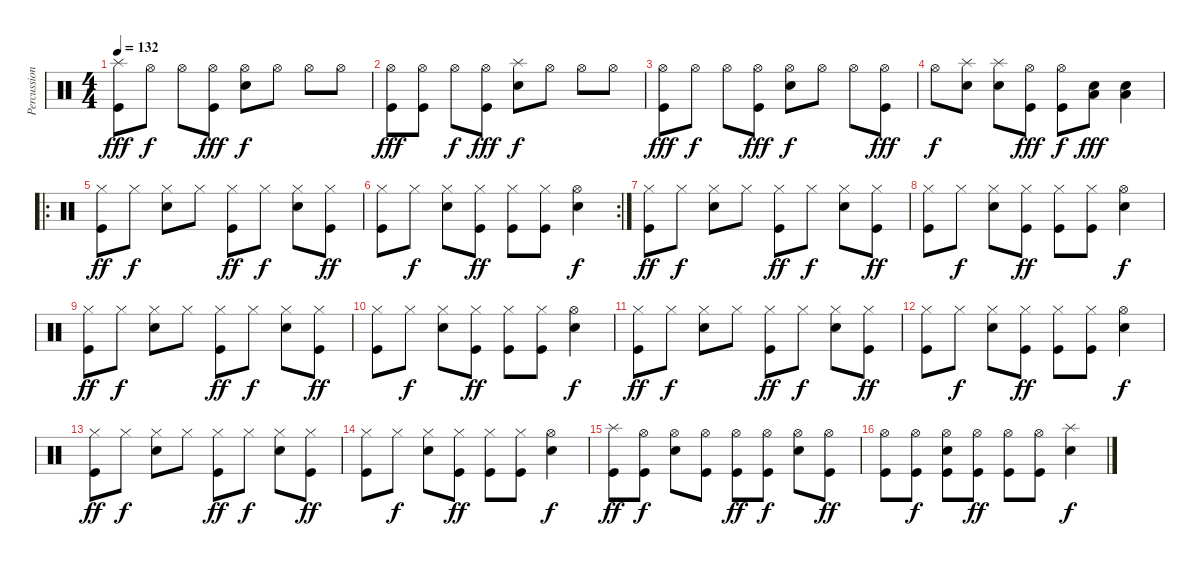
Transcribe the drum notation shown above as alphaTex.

\track ("Percussion" "Percussion") {instrument percussion}
\staff {score}
\articulation defaults
\ts (4 4)
\tempo 132
\clef neutral
\ks c
("Splash (hit)" "Kick (hit)").8{dy fff} "Hi-Hat (open)".8{dy f} "Hi-Hat (open)".8 ("Hi-Hat (open)" "Kick (hit)").8{dy fff} ("Hi-Hat (open)" "Snare (hit) 2").8{dy f} "Hi-Hat (open)".8 "Hi-Hat (open)".8 "Hi-Hat (open)".8 |
("Hi-Hat (open)" "Kick (hit)").8{dy fff} ("Hi-Hat (open)" "Kick (hit)").8 "Hi-Hat (open)".8{dy f} ("Hi-Hat (open)" "Kick (hit)").8{dy fff} ("Splash (hit)" "Snare (hit) 2").8{dy f} "Hi-Hat (open)".8 "Hi-Hat (open)".8 "Hi-Hat (open)".8 |
("Hi-Hat (open)" "Kick (hit)").8{dy fff} "Hi-Hat (open)".8{dy f} "Hi-Hat (open)".8 ("Hi-Hat (open)" "Kick (hit)").8{dy fff} ("Hi-Hat (open)" "Snare (hit) 2").8{dy f} "Hi-Hat (open)".8 "Hi-Hat (open)".8 ("Hi-Hat (open)" "Kick (hit)").8{dy fff} |
"Hi-Hat (open)".8{dy f} ("Splash (hit)" "Snare (hit) 2").8 ("Splash (hit)" "Snare (hit) 2").8 ("Hi-Hat (open)" "Kick (hit)").8{dy fff} ("Hi-Hat (open)" "Kick (hit)").8{dy f} ("Low Tom (hit)" "Snare (hit) 2").8{dy fff} ("Low Tom (hit)" "Snare (hit) 2").4 |
\ro
("Hi-Hat (closed)" "Kick (hit)").8{dy ff} "Hi-Hat (closed)".8{dy f} ("Hi-Hat (closed)" "Snare (hit) 2").8 "Hi-Hat (closed)".8 ("Hi-Hat (closed)" "Kick (hit)").8{dy ff} "Hi-Hat (closed)".8{dy f} ("Hi-Hat (closed)" "Snare (hit) 2").8 ("Hi-Hat (closed)" "Kick (hit)").8{dy ff} |
\rc 2
("Hi-Hat (closed)" "Kick (hit)").8 "Hi-Hat (closed)".8{dy f} ("Hi-Hat (closed)" "Snare (hit) 2").8 ("Hi-Hat (closed)" "Kick (hit)").8{dy ff} ("Hi-Hat (closed)" "Kick (hit)").8 ("Hi-Hat (closed)" "Kick (hit)").8 ("Hi-Hat (open)" "Snare (hit) 2").4{dy f} |
("Hi-Hat (closed)" "Kick (hit)").8{dy ff} "Hi-Hat (closed)".8{dy f} ("Hi-Hat (closed)" "Snare (hit) 2").8 "Hi-Hat (closed)".8 ("Hi-Hat (closed)" "Kick (hit)").8{dy ff} "Hi-Hat (closed)".8{dy f} ("Hi-Hat (closed)" "Snare (hit) 2").8 ("Hi-Hat (closed)" "Kick (hit)").8{dy ff} |
("Hi-Hat (closed)" "Kick (hit)").8 "Hi-Hat (closed)".8{dy f} ("Hi-Hat (closed)" "Snare (hit) 2").8 ("Hi-Hat (closed)" "Kick (hit)").8{dy ff} ("Hi-Hat (closed)" "Kick (hit)").8 ("Hi-Hat (closed)" "Kick (hit)").8 ("Hi-Hat (open)" "Snare (hit) 2").4{dy f} |
("Hi-Hat (closed)" "Kick (hit)").8{dy ff} "Hi-Hat (closed)".8{dy f} ("Hi-Hat (closed)" "Snare (hit) 2").8 "Hi-Hat (closed)".8 ("Hi-Hat (closed)" "Kick (hit)").8{dy ff} "Hi-Hat (closed)".8{dy f} ("Hi-Hat (closed)" "Snare (hit) 2").8 ("Hi-Hat (closed)" "Kick (hit)").8{dy ff} |
("Hi-Hat (closed)" "Kick (hit)").8 "Hi-Hat (closed)".8{dy f} ("Hi-Hat (closed)" "Snare (hit) 2").8 ("Hi-Hat (closed)" "Kick (hit)").8{dy ff} ("Hi-Hat (closed)" "Kick (hit)").8 ("Hi-Hat (closed)" "Kick (hit)").8 ("Hi-Hat (open)" "Snare (hit) 2").4{dy f} |
("Hi-Hat (closed)" "Kick (hit)").8{dy ff} "Hi-Hat (closed)".8{dy f} ("Hi-Hat (closed)" "Snare (hit) 2").8 "Hi-Hat (closed)".8 ("Hi-Hat (closed)" "Kick (hit)").8{dy ff} "Hi-Hat (closed)".8{dy f} ("Hi-Hat (closed)" "Snare (hit) 2").8 ("Hi-Hat (closed)" "Kick (hit)").8{dy ff} |
("Hi-Hat (closed)" "Kick (hit)").8 "Hi-Hat (closed)".8{dy f} ("Hi-Hat (closed)" "Snare (hit) 2").8 ("Hi-Hat (closed)" "Kick (hit)").8{dy ff} ("Hi-Hat (closed)" "Kick (hit)").8 ("Hi-Hat (closed)" "Kick (hit)").8 ("Hi-Hat (open)" "Snare (hit) 2").4{dy f} |
("Hi-Hat (closed)" "Kick (hit)").8{dy ff} "Hi-Hat (closed)".8{dy f} ("Hi-Hat (closed)" "Snare (hit) 2").8 "Hi-Hat (closed)".8 ("Hi-Hat (closed)" "Kick (hit)").8{dy ff} "Hi-Hat (closed)".8{dy f} ("Hi-Hat (closed)" "Snare (hit) 2").8 ("Hi-Hat (closed)" "Kick (hit)").8{dy ff} |
("Hi-Hat (closed)" "Kick (hit)").8 "Hi-Hat (closed)".8{dy f} ("Hi-Hat (closed)" "Snare (hit) 2").8 ("Hi-Hat (closed)" "Kick (hit)").8{dy ff} ("Hi-Hat (closed)" "Kick (hit)").8 ("Hi-Hat (closed)" "Kick (hit)").8 ("Hi-Hat (open)" "Snare (hit) 2").4{dy f} |
("Splash (hit)" "Kick (hit)").8{dy ff} ("Hi-Hat (open)" "Kick (hit)").8{dy f} ("Hi-Hat (open)" "Snare (hit) 2").8 ("Hi-Hat (open)" "Kick (hit)").8 ("Hi-Hat (open)" "Kick (hit)").8{dy ff} ("Hi-Hat (open)" "Kick (hit)").8{dy f} ("Hi-Hat (open)" "Snare (hit) 2").8 ("Hi-Hat (open)" "Kick (hit)").8{dy ff} |
("Hi-Hat (open)" "Kick (hit)").8 ("Hi-Hat (open)" "Kick (hit)").8{dy f} ("Hi-Hat (open)" "Snare (hit) 2" "Kick (hit)").8 ("Hi-Hat (open)" "Kick (hit)").8{dy ff} ("Hi-Hat (open)" "Kick (hit)").8 ("Hi-Hat (open)" "Kick (hit)").8 ("Splash (hit)" "Snare (hit) 2").4{dy f}
